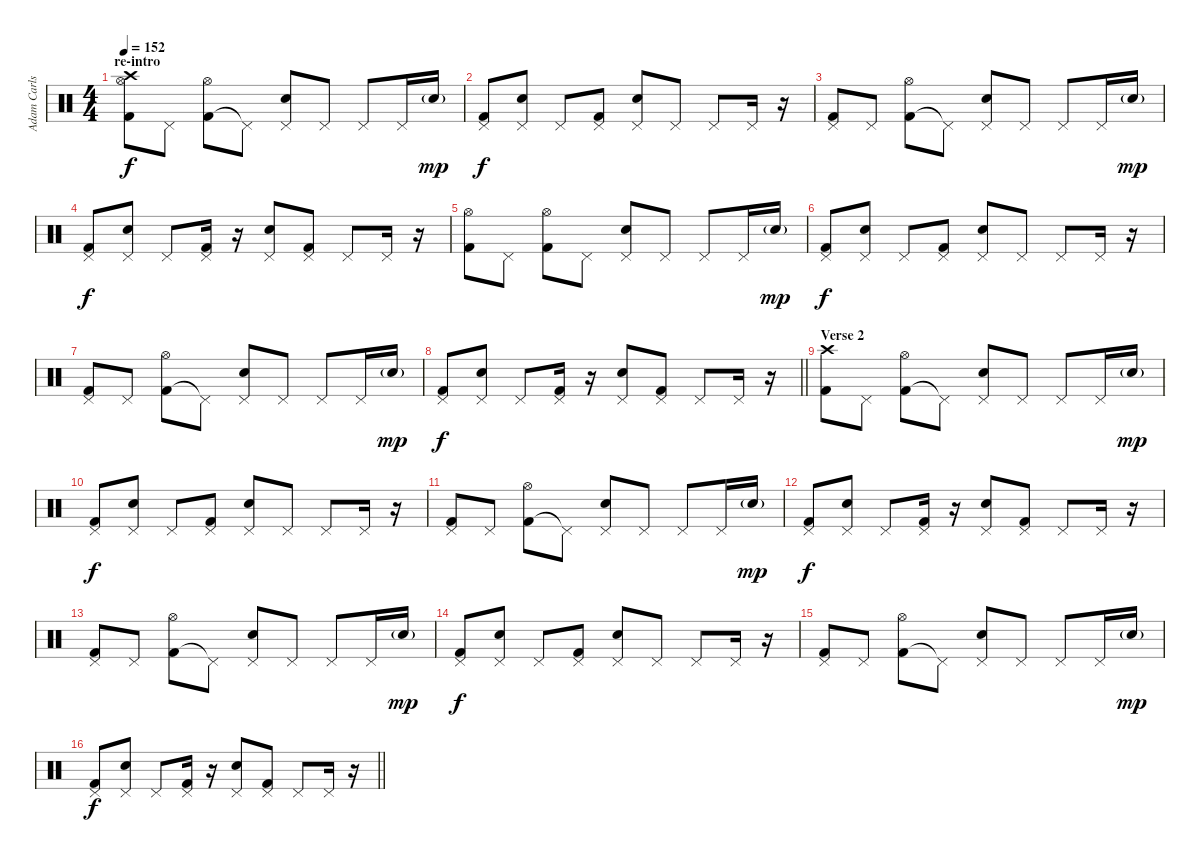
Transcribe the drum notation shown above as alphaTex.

\track ("Adam Carlson" "Adam Carls") {instrument percussion}
\staff {score}
\articulation defaults
\ts (4 4)
\section ("" "re-intro")
\tempo 152
\clef neutral
\ks c
("Crash high (hit)" "Kick (hit) 2" "Hi-Hat (open)").8{dy f} "Pedal Hi-Hat (hit)".8 ("Kick (hit) 2" "Hi-Hat (open)").8 "Pedal Hi-Hat (hit)"{t}.8 ("Snare (hit) 2" "Pedal Hi-Hat (hit)").8 "Pedal Hi-Hat (hit)".8 "Pedal Hi-Hat (hit)".8 "Pedal Hi-Hat (hit)".16 "Snare (hit) 2"{g}.16{dy mp} |
("Kick (hit) 2" "Pedal Hi-Hat (hit)").8{dy f} ("Snare (hit) 2" "Pedal Hi-Hat (hit)").8 "Pedal Hi-Hat (hit)".8 ("Kick (hit) 2" "Pedal Hi-Hat (hit)").8 ("Snare (hit) 2" "Pedal Hi-Hat (hit)").8 "Pedal Hi-Hat (hit)".8 "Pedal Hi-Hat (hit)".8 "Pedal Hi-Hat (hit)".16 r.16 |
("Kick (hit) 2" "Pedal Hi-Hat (hit)").8 "Pedal Hi-Hat (hit)".8 ("Kick (hit) 2" "Hi-Hat (open)").8 "Pedal Hi-Hat (hit)"{t}.8 ("Snare (hit) 2" "Pedal Hi-Hat (hit)").8 "Pedal Hi-Hat (hit)".8 "Pedal Hi-Hat (hit)".8 "Pedal Hi-Hat (hit)".16 "Snare (hit) 2"{g}.16{dy mp} |
("Kick (hit) 2" "Pedal Hi-Hat (hit)").8{dy f} ("Snare (hit) 2" "Pedal Hi-Hat (hit)").8 "Pedal Hi-Hat (hit)".8 ("Kick (hit) 2" "Pedal Hi-Hat (hit)").16 r.16 ("Snare (hit) 2" "Pedal Hi-Hat (hit)").8 ("Kick (hit) 2" "Pedal Hi-Hat (hit)").8 "Pedal Hi-Hat (hit)".8 "Pedal Hi-Hat (hit)".16 r.16 |
("Kick (hit) 2" "Hi-Hat (open)").8 "Pedal Hi-Hat (hit)".8 ("Kick (hit) 2" "Hi-Hat (open)").8 "Pedal Hi-Hat (hit)".8 ("Snare (hit) 2" "Pedal Hi-Hat (hit)").8 "Pedal Hi-Hat (hit)".8 "Pedal Hi-Hat (hit)".8 "Pedal Hi-Hat (hit)".16 "Snare (hit) 2"{g}.16{dy mp} |
("Kick (hit) 2" "Pedal Hi-Hat (hit)").8{dy f} ("Snare (hit) 2" "Pedal Hi-Hat (hit)").8 "Pedal Hi-Hat (hit)".8 ("Kick (hit) 2" "Pedal Hi-Hat (hit)").8 ("Snare (hit) 2" "Pedal Hi-Hat (hit)").8 "Pedal Hi-Hat (hit)".8 "Pedal Hi-Hat (hit)".8 "Pedal Hi-Hat (hit)".16 r.16 |
("Kick (hit) 2" "Pedal Hi-Hat (hit)").8 "Pedal Hi-Hat (hit)".8 ("Kick (hit) 2" "Hi-Hat (open)").8 "Pedal Hi-Hat (hit)"{t}.8 ("Snare (hit) 2" "Pedal Hi-Hat (hit)").8 "Pedal Hi-Hat (hit)".8 "Pedal Hi-Hat (hit)".8 "Pedal Hi-Hat (hit)".16 "Snare (hit) 2"{g}.16{dy mp} |
\barLineRight lightlight
("Kick (hit) 2" "Pedal Hi-Hat (hit)").8{dy f} ("Snare (hit) 2" "Pedal Hi-Hat (hit)").8 "Pedal Hi-Hat (hit)".8 ("Kick (hit) 2" "Pedal Hi-Hat (hit)").16 r.16 ("Snare (hit) 2" "Pedal Hi-Hat (hit)").8 ("Kick (hit) 2" "Pedal Hi-Hat (hit)").8 "Pedal Hi-Hat (hit)".8 "Pedal Hi-Hat (hit)".16 r.16 |
\section ("" "Verse 2")
("Crash high (hit)" "Kick (hit) 2").8 "Pedal Hi-Hat (hit)".8 ("Kick (hit) 2" "Hi-Hat (open)").8 "Pedal Hi-Hat (hit)"{t}.8 ("Snare (hit) 2" "Pedal Hi-Hat (hit)").8 "Pedal Hi-Hat (hit)".8 "Pedal Hi-Hat (hit)".8 "Pedal Hi-Hat (hit)".16 "Snare (hit) 2"{g}.16{dy mp} |
("Kick (hit) 2" "Pedal Hi-Hat (hit)").8{dy f} ("Snare (hit) 2" "Pedal Hi-Hat (hit)").8 "Pedal Hi-Hat (hit)".8 ("Kick (hit) 2" "Pedal Hi-Hat (hit)").8 ("Snare (hit) 2" "Pedal Hi-Hat (hit)").8 "Pedal Hi-Hat (hit)".8 "Pedal Hi-Hat (hit)".8 "Pedal Hi-Hat (hit)".16 r.16 |
("Kick (hit) 2" "Pedal Hi-Hat (hit)").8 "Pedal Hi-Hat (hit)".8 ("Kick (hit) 2" "Hi-Hat (open)").8 "Pedal Hi-Hat (hit)"{t}.8 ("Snare (hit) 2" "Pedal Hi-Hat (hit)").8 "Pedal Hi-Hat (hit)".8 "Pedal Hi-Hat (hit)".8 "Pedal Hi-Hat (hit)".16 "Snare (hit) 2"{g}.16{dy mp} |
("Kick (hit) 2" "Pedal Hi-Hat (hit)").8{dy f} ("Snare (hit) 2" "Pedal Hi-Hat (hit)").8 "Pedal Hi-Hat (hit)".8 ("Kick (hit) 2" "Pedal Hi-Hat (hit)").16 r.16 ("Snare (hit) 2" "Pedal Hi-Hat (hit)").8 ("Kick (hit) 2" "Pedal Hi-Hat (hit)").8 "Pedal Hi-Hat (hit)".8 "Pedal Hi-Hat (hit)".16 r.16 |
("Kick (hit) 2" "Pedal Hi-Hat (hit)").8 "Pedal Hi-Hat (hit)".8 ("Kick (hit) 2" "Hi-Hat (open)").8 "Pedal Hi-Hat (hit)"{t}.8 ("Snare (hit) 2" "Pedal Hi-Hat (hit)").8 "Pedal Hi-Hat (hit)".8 "Pedal Hi-Hat (hit)".8 "Pedal Hi-Hat (hit)".16 "Snare (hit) 2"{g}.16{dy mp} |
("Kick (hit) 2" "Pedal Hi-Hat (hit)").8{dy f} ("Snare (hit) 2" "Pedal Hi-Hat (hit)").8 "Pedal Hi-Hat (hit)".8 ("Kick (hit) 2" "Pedal Hi-Hat (hit)").8 ("Snare (hit) 2" "Pedal Hi-Hat (hit)").8 "Pedal Hi-Hat (hit)".8 "Pedal Hi-Hat (hit)".8 "Pedal Hi-Hat (hit)".16 r.16 |
("Kick (hit) 2" "Pedal Hi-Hat (hit)").8 "Pedal Hi-Hat (hit)".8 ("Kick (hit) 2" "Hi-Hat (open)").8 "Pedal Hi-Hat (hit)"{t}.8 ("Snare (hit) 2" "Pedal Hi-Hat (hit)").8 "Pedal Hi-Hat (hit)".8 "Pedal Hi-Hat (hit)".8 "Pedal Hi-Hat (hit)".16 "Snare (hit) 2"{g}.16{dy mp} |
\barLineRight lightlight
("Kick (hit) 2" "Pedal Hi-Hat (hit)").8{dy f} ("Snare (hit) 2" "Pedal Hi-Hat (hit)").8 "Pedal Hi-Hat (hit)".8 ("Kick (hit) 2" "Pedal Hi-Hat (hit)").16 r.16 ("Snare (hit) 2" "Pedal Hi-Hat (hit)").8 ("Kick (hit) 2" "Pedal Hi-Hat (hit)").8 "Pedal Hi-Hat (hit)".8 "Pedal Hi-Hat (hit)".16 r.16
